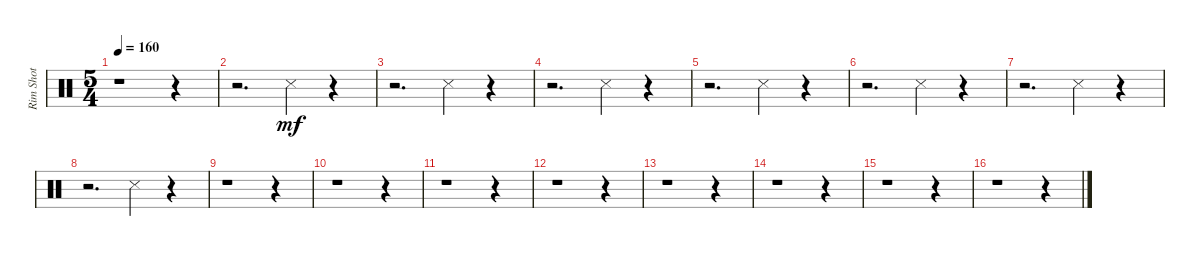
\track ("Rim Shot" "Rim Shot") {instrument percussion}
\staff {score}
\articulation defaults
\ts (5 4)
\tempo 160
\clef neutral
\ks c
r.1{dy mf} r.4 |
r.2{d} "Snare (side stick) 3".4 r.4 |
r.2{d} "Snare (side stick) 3".4 r.4 |
r.2{d} "Snare (side stick) 3".4 r.4 |
r.2{d} "Snare (side stick) 3".4 r.4 |
r.2{d} "Snare (side stick) 3".4 r.4 |
r.2{d} "Snare (side stick) 3".4 r.4 |
r.2{d} "Snare (side stick) 3".4 r.4 |
r.1 r.4 |
r.1 r.4 |
r.1 r.4 |
r.1 r.4 |
r.1 r.4 |
r.1 r.4 |
r.1 r.4 |
r.1 r.4
